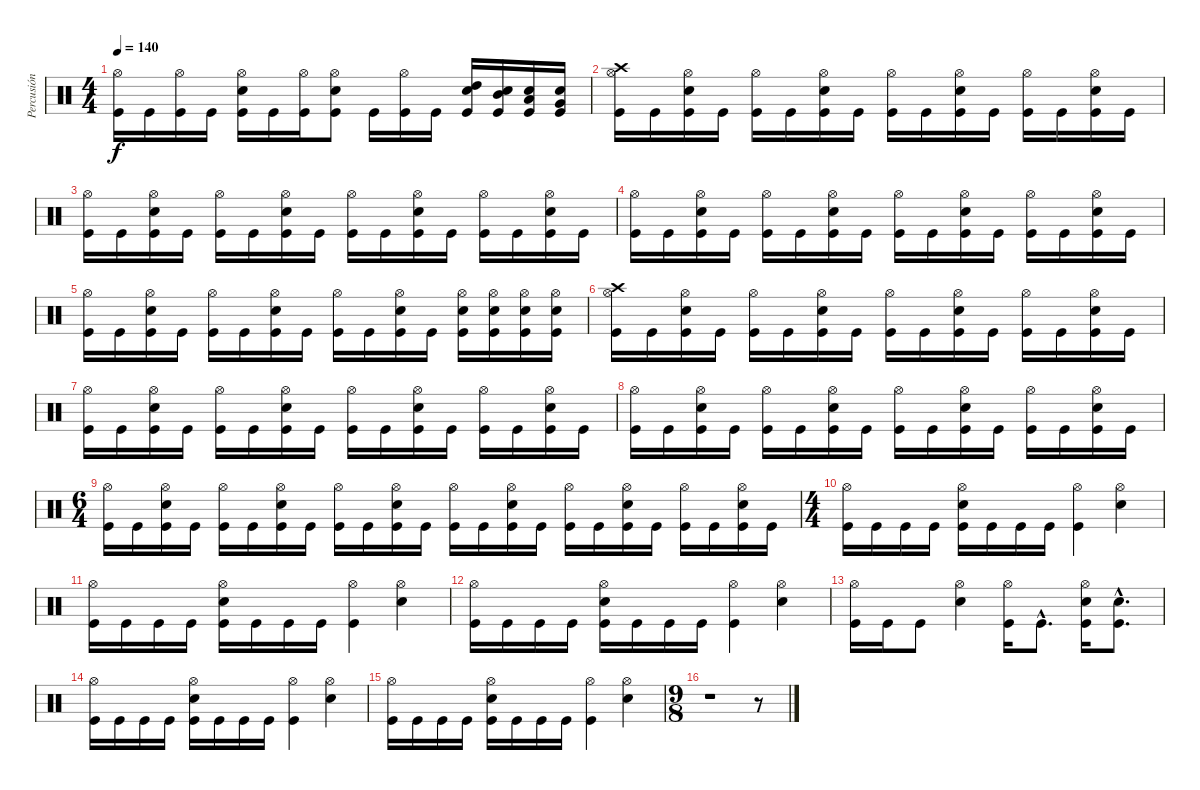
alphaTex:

\track ("Percusión" "Percusión") {instrument percussion}
\staff {score}
\articulation defaults
\ts (4 4)
\tempo 140
\clef neutral
\ks c
("Hi-Hat (open)" "Kick (hit)").16{dy f} "Kick (hit)".16 ("Hi-Hat (open)" "Kick (hit)").16 "Kick (hit)".16 ("Snare (hit) 2" "Hi-Hat (open)" "Kick (hit)").16 "Kick (hit)".16 ("Hi-Hat (open)" "Kick (hit)").16 ("Snare (hit) 2" "Hi-Hat (open)" "Kick (hit)").8 "Kick (hit)".16 ("Hi-Hat (open)" "Kick (hit)").16 "Kick (hit)".16 ("Snare (hit) 2" "High Tom (hit)" "Kick (hit)").16 ("Snare (hit) 2" "Mid Tom (hit)" "Kick (hit)").16 ("Snare (hit) 2" "Low Tom (hit)" "Kick (hit)").16 ("Snare (hit) 2" "Very Low Tom (hit)" "Kick (hit)").16 |
("Crash high (hit)" "Hi-Hat (open)" "Kick (hit)").16 "Kick (hit)".16 ("Snare (hit) 2" "Hi-Hat (open)" "Kick (hit)").16 "Kick (hit)".16 ("Hi-Hat (open)" "Kick (hit)").16 "Kick (hit)".16 ("Snare (hit) 2" "Hi-Hat (open)" "Kick (hit)").16 "Kick (hit)".16 ("Hi-Hat (open)" "Kick (hit)").16 "Kick (hit)".16 ("Snare (hit) 2" "Hi-Hat (open)" "Kick (hit)").16 "Kick (hit)".16 ("Hi-Hat (open)" "Kick (hit)").16 "Kick (hit)".16 ("Snare (hit) 2" "Hi-Hat (open)" "Kick (hit)").16 "Kick (hit)".16 |
("Hi-Hat (open)" "Kick (hit)").16 "Kick (hit)".16 ("Snare (hit) 2" "Hi-Hat (open)" "Kick (hit)").16 "Kick (hit)".16 ("Hi-Hat (open)" "Kick (hit)").16 "Kick (hit)".16 ("Snare (hit) 2" "Hi-Hat (open)" "Kick (hit)").16 "Kick (hit)".16 ("Hi-Hat (open)" "Kick (hit)").16 "Kick (hit)".16 ("Snare (hit) 2" "Hi-Hat (open)" "Kick (hit)").16 "Kick (hit)".16 ("Hi-Hat (open)" "Kick (hit)").16 "Kick (hit)".16 ("Snare (hit) 2" "Hi-Hat (open)" "Kick (hit)").16 "Kick (hit)".16 |
("Hi-Hat (open)" "Kick (hit)").16 "Kick (hit)".16 ("Snare (hit) 2" "Hi-Hat (open)" "Kick (hit)").16 "Kick (hit)".16 ("Hi-Hat (open)" "Kick (hit)").16 "Kick (hit)".16 ("Snare (hit) 2" "Hi-Hat (open)" "Kick (hit)").16 "Kick (hit)".16 ("Hi-Hat (open)" "Kick (hit)").16 "Kick (hit)".16 ("Snare (hit) 2" "Hi-Hat (open)" "Kick (hit)").16 "Kick (hit)".16 ("Hi-Hat (open)" "Kick (hit)").16 "Kick (hit)".16 ("Snare (hit) 2" "Hi-Hat (open)" "Kick (hit)").16 "Kick (hit)".16 |
("Hi-Hat (open)" "Kick (hit)").16 "Kick (hit)".16 ("Snare (hit) 2" "Hi-Hat (open)" "Kick (hit)").16 "Kick (hit)".16 ("Hi-Hat (open)" "Kick (hit)").16 "Kick (hit)".16 ("Snare (hit) 2" "Hi-Hat (open)" "Kick (hit)").16 "Kick (hit)".16 ("Hi-Hat (open)" "Kick (hit)").16 "Kick (hit)".16 ("Snare (hit) 2" "Hi-Hat (open)" "Kick (hit)").16 "Kick (hit)".16 ("Snare (hit) 2" "Hi-Hat (open)" "Kick (hit)").16 ("Snare (hit) 2" "Hi-Hat (open)" "Kick (hit)").16 ("Snare (hit) 2" "Hi-Hat (open)" "Kick (hit)").16 ("Snare (hit) 2" "Hi-Hat (open)" "Kick (hit)").16 |
("Crash high (hit)" "Hi-Hat (open)" "Kick (hit)").16 "Kick (hit)".16 ("Snare (hit) 2" "Hi-Hat (open)" "Kick (hit)").16 "Kick (hit)".16 ("Hi-Hat (open)" "Kick (hit)").16 "Kick (hit)".16 ("Snare (hit) 2" "Hi-Hat (open)" "Kick (hit)").16 "Kick (hit)".16 ("Hi-Hat (open)" "Kick (hit)").16 "Kick (hit)".16 ("Snare (hit) 2" "Hi-Hat (open)" "Kick (hit)").16 "Kick (hit)".16 ("Hi-Hat (open)" "Kick (hit)").16 "Kick (hit)".16 ("Snare (hit) 2" "Hi-Hat (open)" "Kick (hit)").16 "Kick (hit)".16 |
("Hi-Hat (open)" "Kick (hit)").16 "Kick (hit)".16 ("Snare (hit) 2" "Hi-Hat (open)" "Kick (hit)").16 "Kick (hit)".16 ("Hi-Hat (open)" "Kick (hit)").16 "Kick (hit)".16 ("Snare (hit) 2" "Hi-Hat (open)" "Kick (hit)").16 "Kick (hit)".16 ("Hi-Hat (open)" "Kick (hit)").16 "Kick (hit)".16 ("Snare (hit) 2" "Hi-Hat (open)" "Kick (hit)").16 "Kick (hit)".16 ("Hi-Hat (open)" "Kick (hit)").16 "Kick (hit)".16 ("Snare (hit) 2" "Hi-Hat (open)" "Kick (hit)").16 "Kick (hit)".16 |
("Hi-Hat (open)" "Kick (hit)").16 "Kick (hit)".16 ("Snare (hit) 2" "Hi-Hat (open)" "Kick (hit)").16 "Kick (hit)".16 ("Hi-Hat (open)" "Kick (hit)").16 "Kick (hit)".16 ("Snare (hit) 2" "Hi-Hat (open)" "Kick (hit)").16 "Kick (hit)".16 ("Hi-Hat (open)" "Kick (hit)").16 "Kick (hit)".16 ("Snare (hit) 2" "Hi-Hat (open)" "Kick (hit)").16 "Kick (hit)".16 ("Hi-Hat (open)" "Kick (hit)").16 "Kick (hit)".16 ("Snare (hit) 2" "Hi-Hat (open)" "Kick (hit)").16 "Kick (hit)".16 |
\ts (6 4)
("Hi-Hat (open)" "Kick (hit)").16 "Kick (hit)".16 ("Snare (hit) 2" "Hi-Hat (open)" "Kick (hit)").16 "Kick (hit)".16 ("Hi-Hat (open)" "Kick (hit)").16 "Kick (hit)".16 ("Snare (hit) 2" "Hi-Hat (open)" "Kick (hit)").16 "Kick (hit)".16 ("Hi-Hat (open)" "Kick (hit)").16 "Kick (hit)".16 ("Snare (hit) 2" "Hi-Hat (open)" "Kick (hit)").16 "Kick (hit)".16 ("Hi-Hat (open)" "Kick (hit)").16 "Kick (hit)".16 ("Snare (hit) 2" "Hi-Hat (open)" "Kick (hit)").16 "Kick (hit)".16 ("Hi-Hat (open)" "Kick (hit)").16 "Kick (hit)".16 ("Snare (hit) 2" "Hi-Hat (open)" "Kick (hit)").16 "Kick (hit)".16 ("Hi-Hat (open)" "Kick (hit)").16 "Kick (hit)".16 ("Snare (hit) 2" "Hi-Hat (open)" "Kick (hit)").16 "Kick (hit)".16 |
\ts (4 4)
("Hi-Hat (open)" "Kick (hit)").16 "Kick (hit)".16 "Kick (hit)".16 "Kick (hit)".16 ("Snare (hit) 2" "Hi-Hat (open)" "Kick (hit)").16 "Kick (hit)".16 "Kick (hit)".16 "Kick (hit)".16 ("Hi-Hat (open)" "Kick (hit)").4 ("Snare (hit) 2" "Hi-Hat (open)").4 |
("Hi-Hat (open)" "Kick (hit)").16 "Kick (hit)".16 "Kick (hit)".16 "Kick (hit)".16 ("Snare (hit) 2" "Hi-Hat (open)" "Kick (hit)").16 "Kick (hit)".16 "Kick (hit)".16 "Kick (hit)".16 ("Hi-Hat (open)" "Kick (hit)").4 ("Snare (hit) 2" "Hi-Hat (open)").4 |
("Hi-Hat (open)" "Kick (hit)").16 "Kick (hit)".16 "Kick (hit)".16 "Kick (hit)".16 ("Snare (hit) 2" "Hi-Hat (open)" "Kick (hit)").16 "Kick (hit)".16 "Kick (hit)".16 "Kick (hit)".16 ("Hi-Hat (open)" "Kick (hit)").4 ("Snare (hit) 2" "Hi-Hat (open)").4 |
("Hi-Hat (open)" "Kick (hit)").16 "Kick (hit)".16 "Kick (hit)".8 ("Snare (hit) 2" "Hi-Hat (open)").4 ("Hi-Hat (open)" "Kick (hit)").16 "Kick (hit)"{hac}.8{d} ("Snare (hit) 2" "Hi-Hat (open)" "Kick (hit)").16 ("Snare (hit) 2"{hac} "Kick (hit)"{hac}).8{d} |
("Hi-Hat (open)" "Kick (hit)").16 "Kick (hit)".16 "Kick (hit)".16 "Kick (hit)".16 ("Snare (hit) 2" "Hi-Hat (open)" "Kick (hit)").16 "Kick (hit)".16 "Kick (hit)".16 "Kick (hit)".16 ("Hi-Hat (open)" "Kick (hit)").4 ("Snare (hit) 2" "Hi-Hat (open)").4 |
("Hi-Hat (open)" "Kick (hit)").16 "Kick (hit)".16 "Kick (hit)".16 "Kick (hit)".16 ("Snare (hit) 2" "Hi-Hat (open)" "Kick (hit)").16 "Kick (hit)".16 "Kick (hit)".16 "Kick (hit)".16 ("Hi-Hat (open)" "Kick (hit)").4 ("Snare (hit) 2" "Hi-Hat (open)").4 |
\ts (9 8)
r.1 r.8
